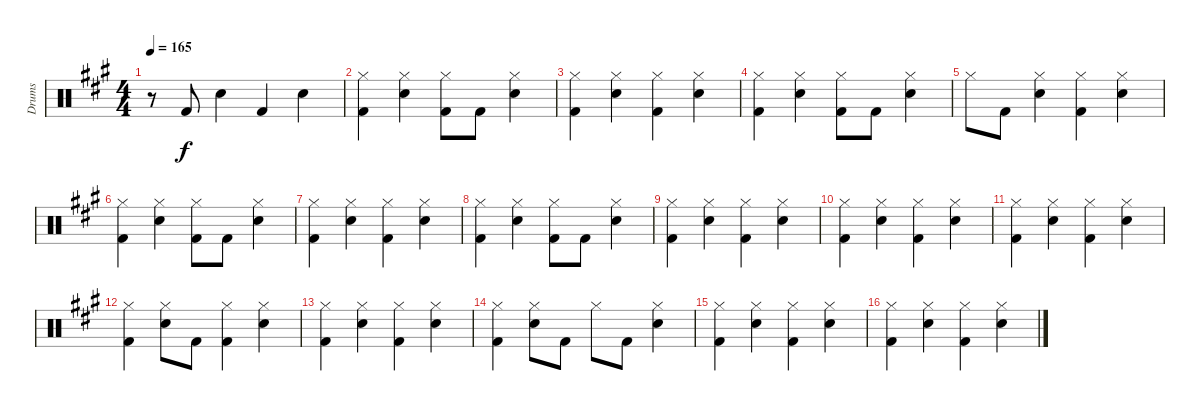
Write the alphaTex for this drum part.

\track ("Drums" "Drums") {instrument percussion}
\staff {score}
\articulation defaults
\ts (4 4)
\tempo 165
\clef neutral
\ks a
r.8{dy f} "Kick (hit) 2".8 "Electric Snare (hit)".4 "Kick (hit) 2".4 "Electric Snare (hit)".4 |
("Hi-Hat (closed)" "Kick (hit) 2").4 ("Hi-Hat (closed)" "Electric Snare (hit)").4 ("Hi-Hat (closed)" "Kick (hit) 2").8 "Kick (hit) 2".8 ("Hi-Hat (closed)" "Electric Snare (hit)").4 |
("Hi-Hat (closed)" "Kick (hit) 2").4 ("Hi-Hat (closed)" "Electric Snare (hit)").4 ("Hi-Hat (closed)" "Kick (hit) 2").4 ("Hi-Hat (closed)" "Electric Snare (hit)").4 |
("Hi-Hat (closed)" "Kick (hit) 2").4 ("Hi-Hat (closed)" "Electric Snare (hit)").4 ("Hi-Hat (closed)" "Kick (hit) 2").8 "Kick (hit) 2".8 ("Hi-Hat (closed)" "Electric Snare (hit)").4 |
"Hi-Hat (closed)".8 "Kick (hit) 2".8 ("Hi-Hat (closed)" "Electric Snare (hit)").4 ("Hi-Hat (closed)" "Kick (hit) 2").4 ("Hi-Hat (closed)" "Electric Snare (hit)").4 |
("Hi-Hat (closed)" "Kick (hit) 2").4 ("Hi-Hat (closed)" "Electric Snare (hit)").4 ("Hi-Hat (closed)" "Kick (hit) 2").8 "Kick (hit) 2".8 ("Hi-Hat (closed)" "Electric Snare (hit)").4 |
("Hi-Hat (closed)" "Kick (hit) 2").4 ("Hi-Hat (closed)" "Electric Snare (hit)").4 ("Hi-Hat (closed)" "Kick (hit) 2").4 ("Hi-Hat (closed)" "Electric Snare (hit)").4 |
("Hi-Hat (closed)" "Kick (hit) 2").4 ("Hi-Hat (closed)" "Electric Snare (hit)").4 ("Hi-Hat (closed)" "Kick (hit) 2").8 "Kick (hit) 2".8 ("Hi-Hat (closed)" "Electric Snare (hit)").4 |
("Hi-Hat (closed)" "Kick (hit) 2").4 ("Hi-Hat (closed)" "Electric Snare (hit)").4 ("Hi-Hat (closed)" "Kick (hit) 2").4 ("Hi-Hat (closed)" "Electric Snare (hit)").4 |
("Hi-Hat (closed)" "Kick (hit) 2").4 ("Hi-Hat (closed)" "Electric Snare (hit)").4 ("Hi-Hat (closed)" "Kick (hit) 2").4 ("Hi-Hat (closed)" "Electric Snare (hit)").4 |
("Hi-Hat (closed)" "Kick (hit) 2").4 ("Hi-Hat (closed)" "Electric Snare (hit)").4 ("Hi-Hat (closed)" "Kick (hit) 2").4 ("Hi-Hat (closed)" "Electric Snare (hit)").4 |
("Hi-Hat (closed)" "Kick (hit) 2").4 ("Hi-Hat (closed)" "Electric Snare (hit)").8 "Kick (hit) 2".8 ("Hi-Hat (closed)" "Kick (hit) 2").4 ("Hi-Hat (closed)" "Electric Snare (hit)").4 |
("Hi-Hat (closed)" "Kick (hit) 2").4 ("Hi-Hat (closed)" "Electric Snare (hit)").4 ("Hi-Hat (closed)" "Kick (hit) 2").4 ("Hi-Hat (closed)" "Electric Snare (hit)").4 |
("Hi-Hat (closed)" "Kick (hit) 2").4 ("Hi-Hat (closed)" "Electric Snare (hit)").8 "Kick (hit) 2".8 "Hi-Hat (closed)".8 "Kick (hit) 2".8 ("Hi-Hat (closed)" "Electric Snare (hit)").4 |
("Hi-Hat (closed)" "Kick (hit) 2").4 ("Hi-Hat (closed)" "Electric Snare (hit)").4 ("Hi-Hat (closed)" "Kick (hit) 2").4 ("Hi-Hat (closed)" "Electric Snare (hit)").4 |
("Hi-Hat (closed)" "Kick (hit) 2").4 ("Hi-Hat (closed)" "Electric Snare (hit)").4 ("Hi-Hat (closed)" "Kick (hit) 2").4 ("Hi-Hat (closed)" "Electric Snare (hit)").4
